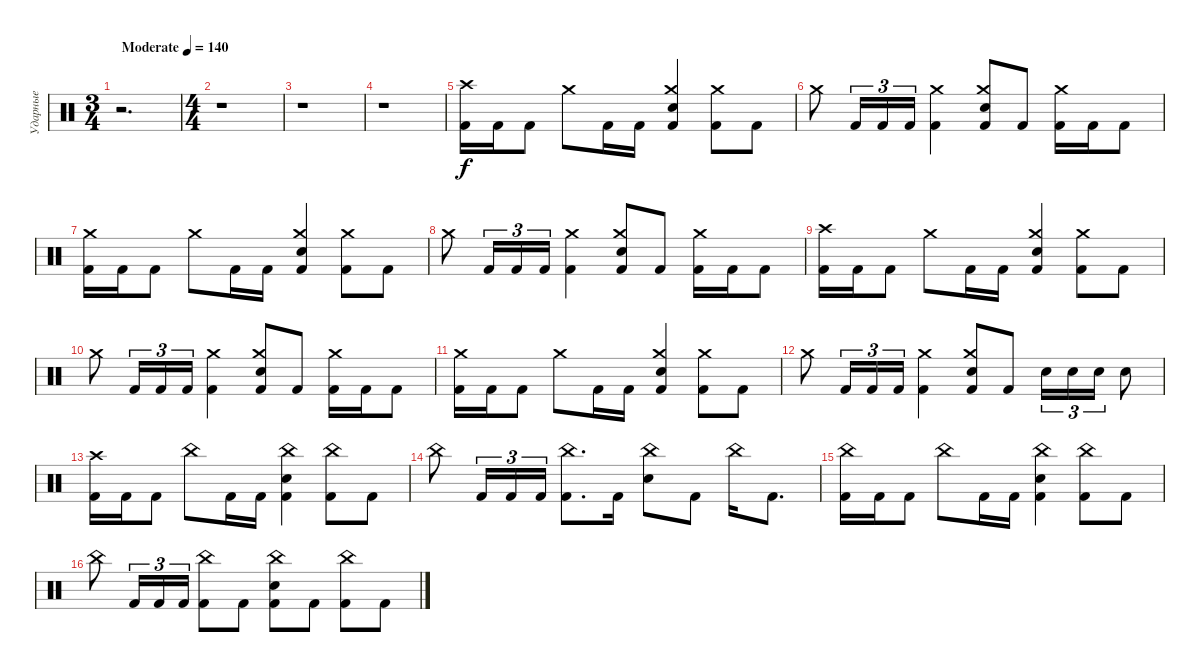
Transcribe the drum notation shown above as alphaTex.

\track ("Ударные" "Ударные") {instrument percussion}
\staff {score}
\articulation defaults
\ts (3 4)
\tempo (140 "Moderate")
\clef neutral
\ks c
r.2{d dy f} |
\ts (4 4)
r.1 |
r.1 |
r.1 |
("Crash high (hit)" "Kick (hit) 2").16 "Kick (hit) 2".16 "Kick (hit) 2".8 "Crash medium (hit)".8 "Kick (hit) 2".16 "Kick (hit) 2".16 ("Crash medium (hit)" "Electric Snare (hit)" "Kick (hit) 2").4 ("Crash medium (hit)" "Kick (hit) 2").8 "Kick (hit) 2".8 |
"Crash medium (hit)".8 "Kick (hit) 2".16{tu (3 2)} "Kick (hit) 2".16{tu (3 2)} "Kick (hit) 2".16{tu (3 2)} ("Crash medium (hit)" "Kick (hit) 2").4 ("Crash medium (hit)" "Electric Snare (hit)" "Kick (hit) 2").8 "Kick (hit) 2".8 ("Crash medium (hit)" "Kick (hit) 2").16 "Kick (hit) 2".16 "Kick (hit) 2".8 |
("Crash medium (hit)" "Kick (hit) 2").16 "Kick (hit) 2".16 "Kick (hit) 2".8 "Crash medium (hit)".8 "Kick (hit) 2".16 "Kick (hit) 2".16 ("Crash medium (hit)" "Electric Snare (hit)" "Kick (hit) 2").4 ("Crash medium (hit)" "Kick (hit) 2").8 "Kick (hit) 2".8 |
"Crash medium (hit)".8 "Kick (hit) 2".16{tu (3 2)} "Kick (hit) 2".16{tu (3 2)} "Kick (hit) 2".16{tu (3 2)} ("Crash medium (hit)" "Kick (hit) 2").4 ("Crash medium (hit)" "Electric Snare (hit)" "Kick (hit) 2").8 "Kick (hit) 2".8 ("Crash medium (hit)" "Kick (hit) 2").16 "Kick (hit) 2".16 "Kick (hit) 2".8 |
("Crash high (hit)" "Kick (hit) 2").16 "Kick (hit) 2".16 "Kick (hit) 2".8 "Crash medium (hit)".8 "Kick (hit) 2".16 "Kick (hit) 2".16 ("Crash medium (hit)" "Electric Snare (hit)" "Kick (hit) 2").4 ("Crash medium (hit)" "Kick (hit) 2").8 "Kick (hit) 2".8 |
"Crash medium (hit)".8 "Kick (hit) 2".16{tu (3 2)} "Kick (hit) 2".16{tu (3 2)} "Kick (hit) 2".16{tu (3 2)} ("Crash medium (hit)" "Kick (hit) 2").4 ("Crash medium (hit)" "Electric Snare (hit)" "Kick (hit) 2").8 "Kick (hit) 2".8 ("Crash medium (hit)" "Kick (hit) 2").16 "Kick (hit) 2".16 "Kick (hit) 2".8 |
("Crash medium (hit)" "Kick (hit) 2").16 "Kick (hit) 2".16 "Kick (hit) 2".8 "Crash medium (hit)".8 "Kick (hit) 2".16 "Kick (hit) 2".16 ("Crash medium (hit)" "Electric Snare (hit)" "Kick (hit) 2").4 ("Crash medium (hit)" "Kick (hit) 2").8 "Kick (hit) 2".8 |
"Crash medium (hit)".8 "Kick (hit) 2".16{tu (3 2)} "Kick (hit) 2".16{tu (3 2)} "Kick (hit) 2".16{tu (3 2)} ("Crash medium (hit)" "Kick (hit) 2").4 ("Crash medium (hit)" "Electric Snare (hit)" "Kick (hit) 2").8 "Kick (hit) 2".8 "Electric Snare (hit)".16{tu (3 2)} "Electric Snare (hit)".16{tu (3 2)} "Electric Snare (hit)".16{tu (3 2)} "Electric Snare (hit)".8 |
("Crash high (hit)" "Kick (hit) 2").16 "Kick (hit) 2".16 "Kick (hit) 2".8 "China (hit)".8 "Kick (hit) 2".16 "Kick (hit) 2".16 ("China (hit)" "Electric Snare (hit)" "Kick (hit) 2").4 ("China (hit)" "Kick (hit) 2").8 "Kick (hit) 2".8 |
"China (hit)".8 "Kick (hit) 2".16{tu (3 2)} "Kick (hit) 2".16{tu (3 2)} "Kick (hit) 2".16{tu (3 2)} ("China (hit)" "Kick (hit) 2").8{d} "Kick (hit) 2".16 ("China (hit)" "Electric Snare (hit)").8 "Kick (hit) 2".8 "China (hit)".16 "Kick (hit) 2".8{d} |
("China (hit)" "Kick (hit) 2").16 "Kick (hit) 2".16 "Kick (hit) 2".8 "China (hit)".8 "Kick (hit) 2".16 "Kick (hit) 2".16 ("China (hit)" "Electric Snare (hit)" "Kick (hit) 2").4 ("China (hit)" "Kick (hit) 2").8 "Kick (hit) 2".8 |
"China (hit)".8 "Kick (hit) 2".16{tu (3 2)} "Kick (hit) 2".16{tu (3 2)} "Kick (hit) 2".16{tu (3 2)} ("China (hit)" "Kick (hit) 2").8 "Kick (hit) 2".8 ("China (hit)" "Electric Snare (hit)" "Kick (hit) 2").8 "Kick (hit) 2".8 ("China (hit)" "Kick (hit) 2").8 "Kick (hit) 2".8
